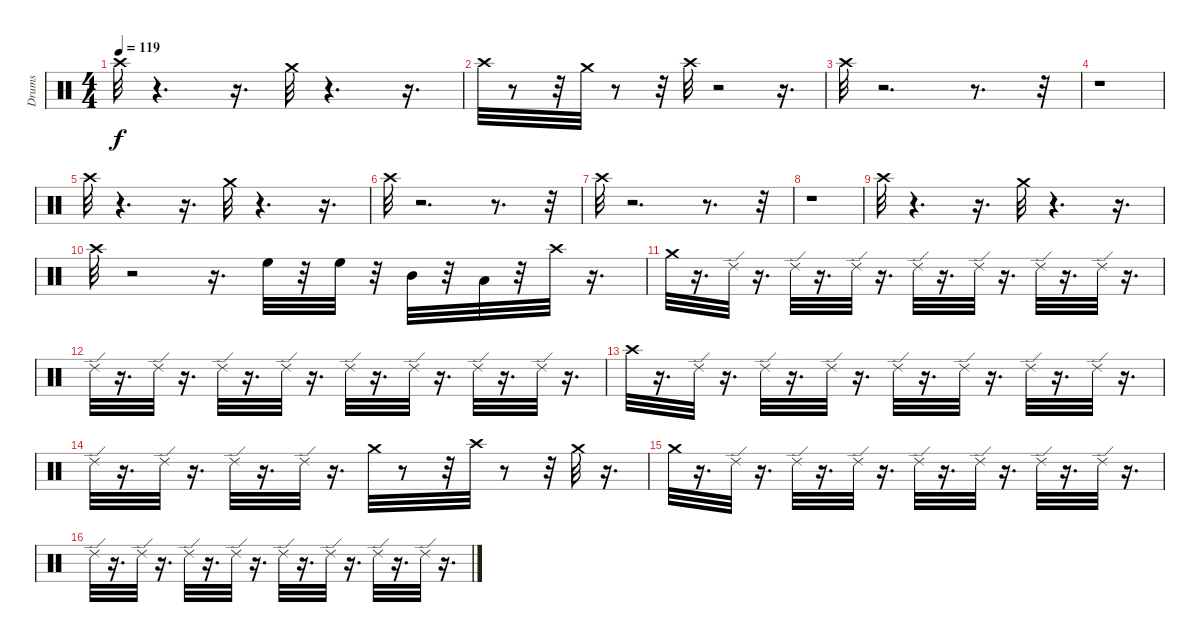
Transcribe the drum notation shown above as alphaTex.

\track ("Drums" "Drums") {instrument percussion}
\staff {score}
\articulation defaults
\ts (4 4)
\tempo 119
\clef neutral
\ks c "Crash high (hit)".32{dy f}
r.4{d} r.16{d} "Crash medium (hit)".32 r.4{d} r.16{d} |
"Crash high (hit)".32 r.8 r.32 "Crash medium (hit)".32 r.8 r.32 "Crash high (hit)".32 r.2 r.16{d} |
"Crash high (hit)".32 r.2{d} r.8{d} r.32 |
r.1 |
"Crash high (hit)".32 r.4{d} r.16{d} "Crash medium (hit)".32 r.4{d} r.16{d} |
"Crash high (hit)".32 r.2{d} r.8{d} r.32 |
"Crash high (hit)".32 r.2{d} r.8{d} r.32 |
r.1 |
"Crash high (hit)".32 r.4{d} r.16{d} "Crash medium (hit)".32 r.4{d} r.16{d} |
"Crash high (hit)".32 r.2 r.16{d} "High Floor Tom (hit)".32 r.32 "High Floor Tom (hit)".32 r.32 "Mid Tom (hit)".32 r.32 "Low Tom (hit)".32 r.32 "Crash high (hit)".32 r.16{d} |
"Crash medium (hit)".32 r.16{d} "Ride (edge) 2".32 r.16{d} "Ride (edge) 2".32 r.16{d} "Ride (edge) 2".32 r.16{d} "Ride (edge) 2".32 r.16{d} "Ride (edge) 2".32 r.16{d} "Ride (edge) 2".32 r.16{d} "Ride (edge) 2".32 r.16{d} |
"Ride (edge) 2".32 r.16{d} "Ride (edge) 2".32 r.16{d} "Ride (edge) 2".32 r.16{d} "Ride (edge) 2".32 r.16{d} "Ride (edge) 2".32 r.16{d} "Ride (edge) 2".32 r.16{d} "Ride (edge) 2".32 r.16{d} "Ride (edge) 2".32 r.16{d} |
"Crash high (hit)".32 r.16{d} "Ride (edge) 2".32 r.16{d} "Ride (edge) 2".32 r.16{d} "Ride (edge) 2".32 r.16{d} "Ride (edge) 2".32 r.16{d} "Ride (edge) 2".32 r.16{d} "Ride (edge) 2".32 r.16{d} "Ride (edge) 2".32 r.16{d} |
"Ride (edge) 2".32 r.16{d} "Ride (edge) 2".32 r.16{d} "Ride (edge) 2".32 r.16{d} "Ride (edge) 2".32 r.16{d} "Crash medium (hit)".32 r.8 r.32 "Crash high (hit)".32 r.8 r.32 "Crash medium (hit)".32 r.16{d} |
"Crash medium (hit)".32 r.16{d} "Ride (edge) 2".32 r.16{d} "Ride (edge) 2".32 r.16{d} "Ride (edge) 2".32 r.16{d} "Ride (edge) 2".32 r.16{d} "Ride (edge) 2".32 r.16{d} "Ride (edge) 2".32 r.16{d} "Ride (edge) 2".32 r.16{d} |
"Ride (edge) 2".32 r.16{d} "Ride (edge) 2".32 r.16{d} "Ride (edge) 2".32 r.16{d} "Ride (edge) 2".32 r.16{d} "Ride (edge) 2".32 r.16{d} "Ride (edge) 2".32 r.16{d} "Ride (edge) 2".32 r.16{d} "Ride (edge) 2".32 r.16{d}
